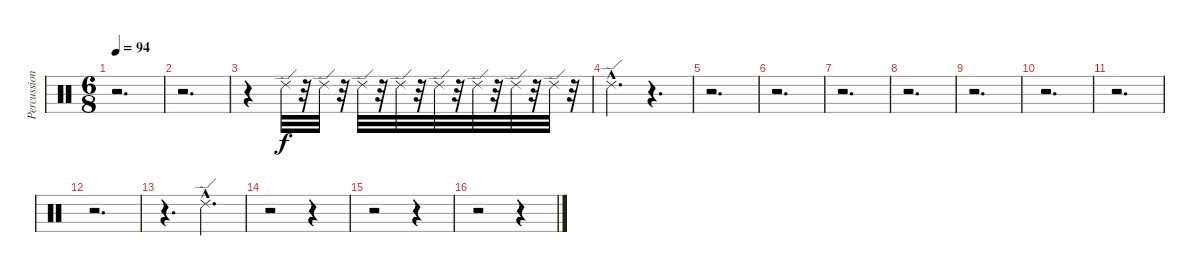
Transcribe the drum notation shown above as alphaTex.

\track ("Percussion" "Percussion") {instrument percussion}
\staff {score}
\articulation defaults
\ts (6 8)
\tempo 94
\clef neutral
\ks c
r.2{d dy f} |
r.2{d} |
r.4 "Ride (edge) 2".32 r.32 "Ride (edge) 2".32 r.32 "Ride (edge) 2".32 r.32 "Ride (edge) 2".32 r.32 "Ride (edge) 2".32 r.32 "Ride (edge) 2".32 r.32 "Ride (edge) 2".32 r.32 "Ride (edge) 2".32 r.32 |
"Ride (edge) 2"{hac}.4{d} r.4{d} |
r.2{d} |
r.2{d} |
r.2{d} |
r.2{d} |
r.2{d} |
r.2{d} |
r.2{d} |
r.2{d} |
r.4{d} "Ride (edge) 2"{hac}.4{d} |
r.2 r.4 |
r.2 r.4 |
r.2 r.4
